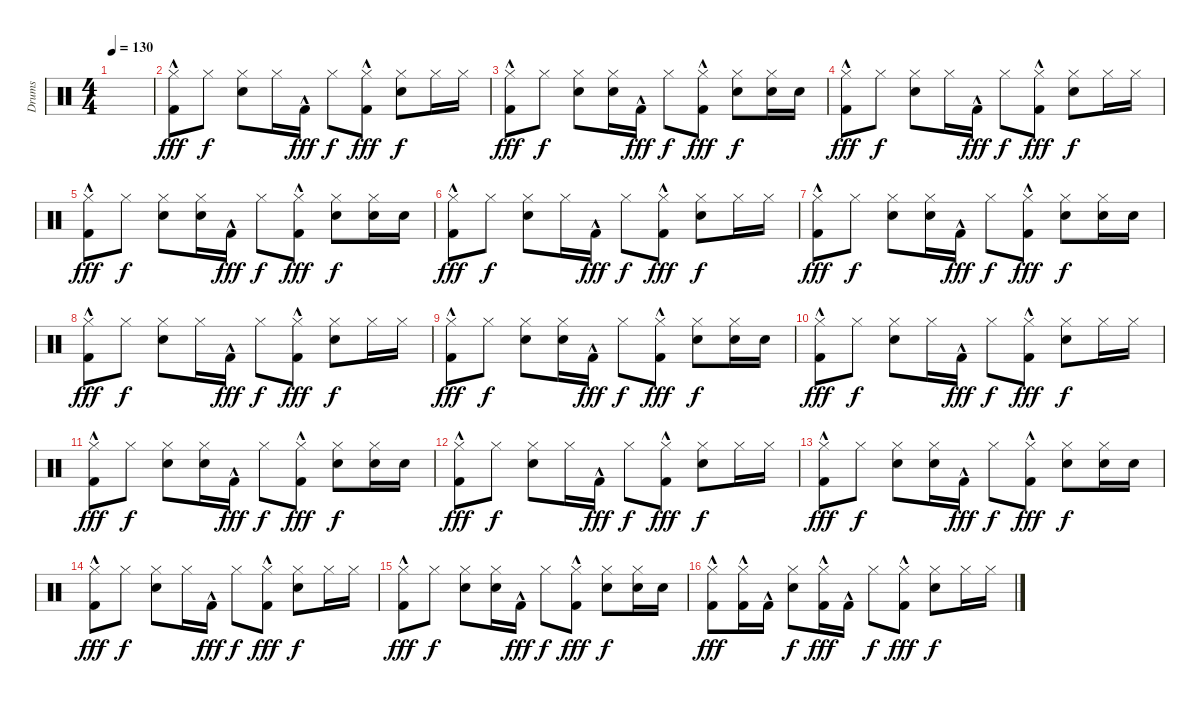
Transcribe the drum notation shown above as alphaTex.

\track ("Drums" "Drums") {instrument percussion}
\staff {score}
\articulation defaults
\ts (4 4)
\tempo 130
\clef neutral
\ks c
|
("Hi-Hat (closed)" "Kick (hit) 2"{hac}).8{dy fff} "Hi-Hat (closed)".8{dy f} ("Hi-Hat (closed)" "Snare (hit) 2").8 "Hi-Hat (closed)".16 "Kick (hit) 2"{hac}.16{dy fff} "Hi-Hat (closed)".8{dy f} ("Hi-Hat (closed)" "Kick (hit) 2"{hac}).8{dy fff} ("Hi-Hat (closed)" "Snare (hit) 2").8{dy f} "Hi-Hat (closed)".16 "Hi-Hat (closed)".16 |
("Hi-Hat (closed)" "Kick (hit) 2"{hac}).8{dy fff} "Hi-Hat (closed)".8{dy f} ("Hi-Hat (closed)" "Snare (hit) 2").8 ("Hi-Hat (closed)" "Snare (hit) 2").16 "Kick (hit) 2"{hac}.16{dy fff} "Hi-Hat (closed)".8{dy f} ("Hi-Hat (closed)" "Kick (hit) 2"{hac}).8{dy fff} ("Hi-Hat (closed)" "Snare (hit) 2").8{dy f} ("Hi-Hat (closed)" "Snare (hit) 2").16 "Snare (hit) 2".16 |
("Hi-Hat (closed)" "Kick (hit) 2"{hac}).8{dy fff} "Hi-Hat (closed)".8{dy f} ("Hi-Hat (closed)" "Snare (hit) 2").8 "Hi-Hat (closed)".16 "Kick (hit) 2"{hac}.16{dy fff} "Hi-Hat (closed)".8{dy f} ("Hi-Hat (closed)" "Kick (hit) 2"{hac}).8{dy fff} ("Hi-Hat (closed)" "Snare (hit) 2").8{dy f} "Hi-Hat (closed)".16 "Hi-Hat (closed)".16 |
("Hi-Hat (closed)" "Kick (hit) 2"{hac}).8{dy fff} "Hi-Hat (closed)".8{dy f} ("Hi-Hat (closed)" "Snare (hit) 2").8 ("Hi-Hat (closed)" "Snare (hit) 2").16 "Kick (hit) 2"{hac}.16{dy fff} "Hi-Hat (closed)".8{dy f} ("Hi-Hat (closed)" "Kick (hit) 2"{hac}).8{dy fff} ("Hi-Hat (closed)" "Snare (hit) 2").8{dy f} ("Hi-Hat (closed)" "Snare (hit) 2").16 "Snare (hit) 2".16 |
("Hi-Hat (closed)" "Kick (hit) 2"{hac}).8{dy fff} "Hi-Hat (closed)".8{dy f} ("Hi-Hat (closed)" "Snare (hit) 2").8 "Hi-Hat (closed)".16 "Kick (hit) 2"{hac}.16{dy fff} "Hi-Hat (closed)".8{dy f} ("Hi-Hat (closed)" "Kick (hit) 2"{hac}).8{dy fff} ("Hi-Hat (closed)" "Snare (hit) 2").8{dy f} "Hi-Hat (closed)".16 "Hi-Hat (closed)".16 |
("Hi-Hat (closed)" "Kick (hit) 2"{hac}).8{dy fff} "Hi-Hat (closed)".8{dy f} ("Hi-Hat (closed)" "Snare (hit) 2").8 ("Hi-Hat (closed)" "Snare (hit) 2").16 "Kick (hit) 2"{hac}.16{dy fff} "Hi-Hat (closed)".8{dy f} ("Hi-Hat (closed)" "Kick (hit) 2"{hac}).8{dy fff} ("Hi-Hat (closed)" "Snare (hit) 2").8{dy f} ("Hi-Hat (closed)" "Snare (hit) 2").16 "Snare (hit) 2".16 |
("Hi-Hat (closed)" "Kick (hit) 2"{hac}).8{dy fff} "Hi-Hat (closed)".8{dy f} ("Hi-Hat (closed)" "Snare (hit) 2").8 "Hi-Hat (closed)".16 "Kick (hit) 2"{hac}.16{dy fff} "Hi-Hat (closed)".8{dy f} ("Hi-Hat (closed)" "Kick (hit) 2"{hac}).8{dy fff} ("Hi-Hat (closed)" "Snare (hit) 2").8{dy f} "Hi-Hat (closed)".16 "Hi-Hat (closed)".16 |
("Hi-Hat (closed)" "Kick (hit) 2"{hac}).8{dy fff} "Hi-Hat (closed)".8{dy f} ("Hi-Hat (closed)" "Snare (hit) 2").8 ("Hi-Hat (closed)" "Snare (hit) 2").16 "Kick (hit) 2"{hac}.16{dy fff} "Hi-Hat (closed)".8{dy f} ("Hi-Hat (closed)" "Kick (hit) 2"{hac}).8{dy fff} ("Hi-Hat (closed)" "Snare (hit) 2").8{dy f} ("Hi-Hat (closed)" "Snare (hit) 2").16 "Snare (hit) 2".16 |
("Hi-Hat (closed)" "Kick (hit) 2"{hac}).8{dy fff} "Hi-Hat (closed)".8{dy f} ("Hi-Hat (closed)" "Snare (hit) 2").8 "Hi-Hat (closed)".16 "Kick (hit) 2"{hac}.16{dy fff} "Hi-Hat (closed)".8{dy f} ("Hi-Hat (closed)" "Kick (hit) 2"{hac}).8{dy fff} ("Hi-Hat (closed)" "Snare (hit) 2").8{dy f} "Hi-Hat (closed)".16 "Hi-Hat (closed)".16 |
("Hi-Hat (closed)" "Kick (hit) 2"{hac}).8{dy fff} "Hi-Hat (closed)".8{dy f} ("Hi-Hat (closed)" "Snare (hit) 2").8 ("Hi-Hat (closed)" "Snare (hit) 2").16 "Kick (hit) 2"{hac}.16{dy fff} "Hi-Hat (closed)".8{dy f} ("Hi-Hat (closed)" "Kick (hit) 2"{hac}).8{dy fff} ("Hi-Hat (closed)" "Snare (hit) 2").8{dy f} ("Hi-Hat (closed)" "Snare (hit) 2").16 "Snare (hit) 2".16 |
("Hi-Hat (closed)" "Kick (hit) 2"{hac}).8{dy fff} "Hi-Hat (closed)".8{dy f} ("Hi-Hat (closed)" "Snare (hit) 2").8 "Hi-Hat (closed)".16 "Kick (hit) 2"{hac}.16{dy fff} "Hi-Hat (closed)".8{dy f} ("Hi-Hat (closed)" "Kick (hit) 2"{hac}).8{dy fff} ("Hi-Hat (closed)" "Snare (hit) 2").8{dy f} "Hi-Hat (closed)".16 "Hi-Hat (closed)".16 |
("Hi-Hat (closed)" "Kick (hit) 2"{hac}).8{dy fff} "Hi-Hat (closed)".8{dy f} ("Hi-Hat (closed)" "Snare (hit) 2").8 ("Hi-Hat (closed)" "Snare (hit) 2").16 "Kick (hit) 2"{hac}.16{dy fff} "Hi-Hat (closed)".8{dy f} ("Hi-Hat (closed)" "Kick (hit) 2"{hac}).8{dy fff} ("Hi-Hat (closed)" "Snare (hit) 2").8{dy f} ("Hi-Hat (closed)" "Snare (hit) 2").16 "Snare (hit) 2".16 |
("Hi-Hat (closed)" "Kick (hit) 2"{hac}).8{dy fff} "Hi-Hat (closed)".8{dy f} ("Hi-Hat (closed)" "Snare (hit) 2").8 "Hi-Hat (closed)".16 "Kick (hit) 2"{hac}.16{dy fff} "Hi-Hat (closed)".8{dy f} ("Hi-Hat (closed)" "Kick (hit) 2"{hac}).8{dy fff} ("Hi-Hat (closed)" "Snare (hit) 2").8{dy f} "Hi-Hat (closed)".16 "Hi-Hat (closed)".16 |
("Hi-Hat (closed)" "Kick (hit) 2"{hac}).8{dy fff} "Hi-Hat (closed)".8{dy f} ("Hi-Hat (closed)" "Snare (hit) 2").8 ("Hi-Hat (closed)" "Snare (hit) 2").16 "Kick (hit) 2"{hac}.16{dy fff} "Hi-Hat (closed)".8{dy f} ("Hi-Hat (closed)" "Kick (hit) 2"{hac}).8{dy fff} ("Hi-Hat (closed)" "Snare (hit) 2").8{dy f} ("Hi-Hat (closed)" "Snare (hit) 2").16 "Snare (hit) 2".16 |
("Hi-Hat (closed)" "Kick (hit) 2"{hac}).8{dy fff} ("Hi-Hat (closed)" "Kick (hit) 2"{hac}).16 "Kick (hit) 2"{hac}.16 ("Hi-Hat (closed)" "Snare (hit) 2").8{dy f} ("Hi-Hat (closed)" "Kick (hit) 2"{hac}).16{dy fff} "Kick (hit) 2"{hac}.16 "Hi-Hat (closed)".8{dy f} ("Hi-Hat (closed)" "Kick (hit) 2"{hac}).8{dy fff} ("Hi-Hat (closed)" "Snare (hit) 2").8{dy f} "Hi-Hat (closed)".16 "Hi-Hat (closed)".16
